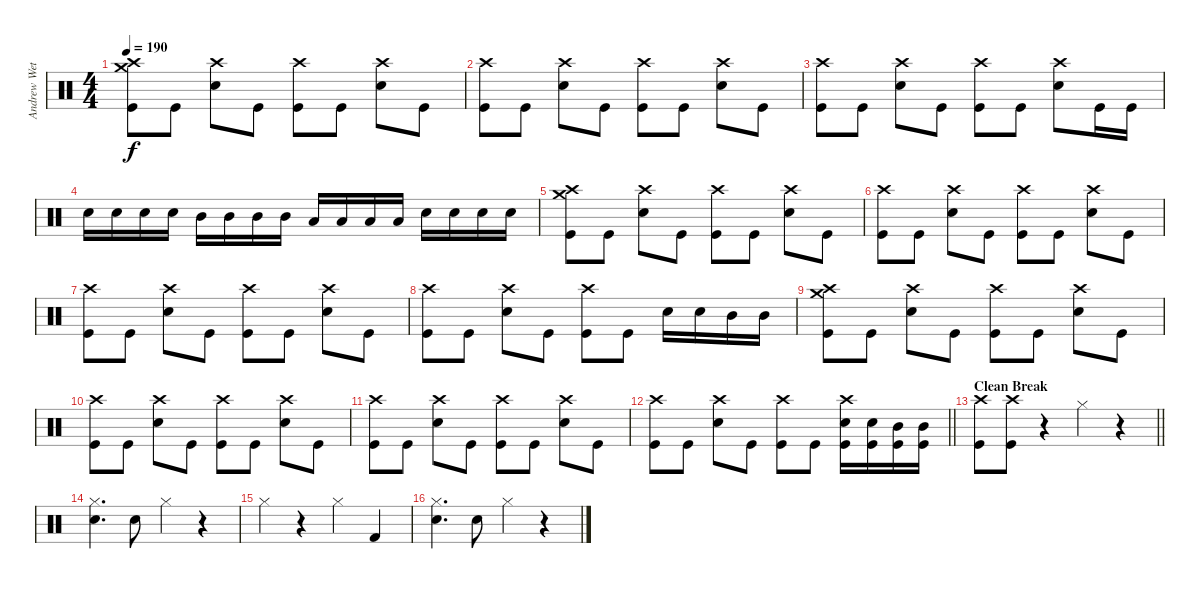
\track ("Andrew Wetzel" "Andrew Wet") {instrument percussion}
\staff {score}
\articulation defaults
\ts (4 4)
\tempo 190
\clef neutral
\ks c
("Crash high (hit)" "Crash medium (hit)" "Kick (hit)").8{dy f} "Kick (hit)".8 ("Crash high (hit)" "Snare (hit) 2").8 "Kick (hit)".8 ("Crash high (hit)" "Kick (hit)").8 "Kick (hit)".8 ("Crash high (hit)" "Snare (hit) 2").8 "Kick (hit)".8 |
("Crash high (hit)" "Kick (hit)").8 "Kick (hit)".8 ("Crash high (hit)" "Snare (hit) 2").8 "Kick (hit)".8 ("Crash high (hit)" "Kick (hit)").8 "Kick (hit)".8 ("Crash high (hit)" "Snare (hit) 2").8 "Kick (hit)".8 |
("Crash high (hit)" "Kick (hit)").8 "Kick (hit)".8 ("Crash high (hit)" "Snare (hit) 2").8 "Kick (hit)".8 ("Crash high (hit)" "Kick (hit)").8 "Kick (hit)".8 ("Crash high (hit)" "Snare (hit) 2").8 "Kick (hit)".16 "Kick (hit)".16 |
"Snare (hit) 2".16 "Snare (hit) 2".16 "Snare (hit) 2".16 "Snare (hit) 2".16 "Mid Tom (hit)".16 "Mid Tom (hit)".16 "Mid Tom (hit)".16 "Mid Tom (hit)".16 "Low Tom (hit)".16 "Low Tom (hit)".16 "Low Tom (hit)".16 "Low Tom (hit)".16 "Snare (hit) 2".16 "Snare (hit) 2".16 "Snare (hit) 2".16 "Snare (hit) 2".16 |
("Crash high (hit)" "Crash medium (hit)" "Kick (hit)").8 "Kick (hit)".8 ("Crash high (hit)" "Snare (hit) 2").8 "Kick (hit)".8 ("Crash high (hit)" "Kick (hit)").8 "Kick (hit)".8 ("Crash high (hit)" "Snare (hit) 2").8 "Kick (hit)".8 |
("Crash high (hit)" "Kick (hit)").8 "Kick (hit)".8 ("Crash high (hit)" "Snare (hit) 2").8 "Kick (hit)".8 ("Crash high (hit)" "Kick (hit)").8 "Kick (hit)".8 ("Crash high (hit)" "Snare (hit) 2").8 "Kick (hit)".8 |
("Crash high (hit)" "Kick (hit)").8 "Kick (hit)".8 ("Crash high (hit)" "Snare (hit) 2").8 "Kick (hit)".8 ("Crash high (hit)" "Kick (hit)").8 "Kick (hit)".8 ("Crash high (hit)" "Snare (hit) 2").8 "Kick (hit)".8 |
("Crash high (hit)" "Kick (hit)").8 "Kick (hit)".8 ("Crash high (hit)" "Snare (hit) 2").8 "Kick (hit)".8 ("Crash high (hit)" "Kick (hit)").8 "Kick (hit)".8 "Snare (hit) 2".16 "Snare (hit) 2".16 "Mid Tom (hit)".16 "Mid Tom (hit)".16 |
("Crash high (hit)" "Crash medium (hit)" "Kick (hit)").8 "Kick (hit)".8 ("Crash high (hit)" "Snare (hit) 2").8 "Kick (hit)".8 ("Crash high (hit)" "Kick (hit)").8 "Kick (hit)".8 ("Crash high (hit)" "Snare (hit) 2").8 "Kick (hit)".8 |
("Crash high (hit)" "Kick (hit)").8 "Kick (hit)".8 ("Crash high (hit)" "Snare (hit) 2").8 "Kick (hit)".8 ("Crash high (hit)" "Kick (hit)").8 "Kick (hit)".8 ("Crash high (hit)" "Snare (hit) 2").8 "Kick (hit)".8 |
("Crash high (hit)" "Kick (hit)").8 "Kick (hit)".8 ("Crash high (hit)" "Snare (hit) 2").8 "Kick (hit)".8 ("Crash high (hit)" "Kick (hit)").8 "Kick (hit)".8 ("Crash high (hit)" "Snare (hit) 2").8 "Kick (hit)".8 |
\barLineRight lightlight
("Crash high (hit)" "Kick (hit)").8 "Kick (hit)".8 ("Crash high (hit)" "Snare (hit) 2").8 "Kick (hit)".8 ("Crash high (hit)" "Kick (hit)").8 "Kick (hit)".8 ("Crash high (hit)" "Snare (hit) 2" "Kick (hit)").16 ("Snare (hit) 2" "Kick (hit)").16 ("Mid Tom (hit)" "Kick (hit)").16 ("Mid Tom (hit)" "Kick (hit)").16 |
\section ("" "Clean Break")
\barLineRight lightlight
("Crash high (hit)" "Kick (hit)").8 ("Crash high (hit)" "Kick (hit)").8 r.4{volume 7} "Hi-Hat (closed)".4 r.4 |
("Hi-Hat (closed)" "Snare (hit) 2").4{d} "Snare (hit) 2".8 "Hi-Hat (closed)".4 r.4 |
"Hi-Hat (closed)".4 r.4 "Hi-Hat (closed)".4 "Kick (hit) 2".4 |
("Hi-Hat (closed)" "Snare (hit) 2").4{d volume 10} "Snare (hit) 2".8 "Hi-Hat (closed)".4 r.4
